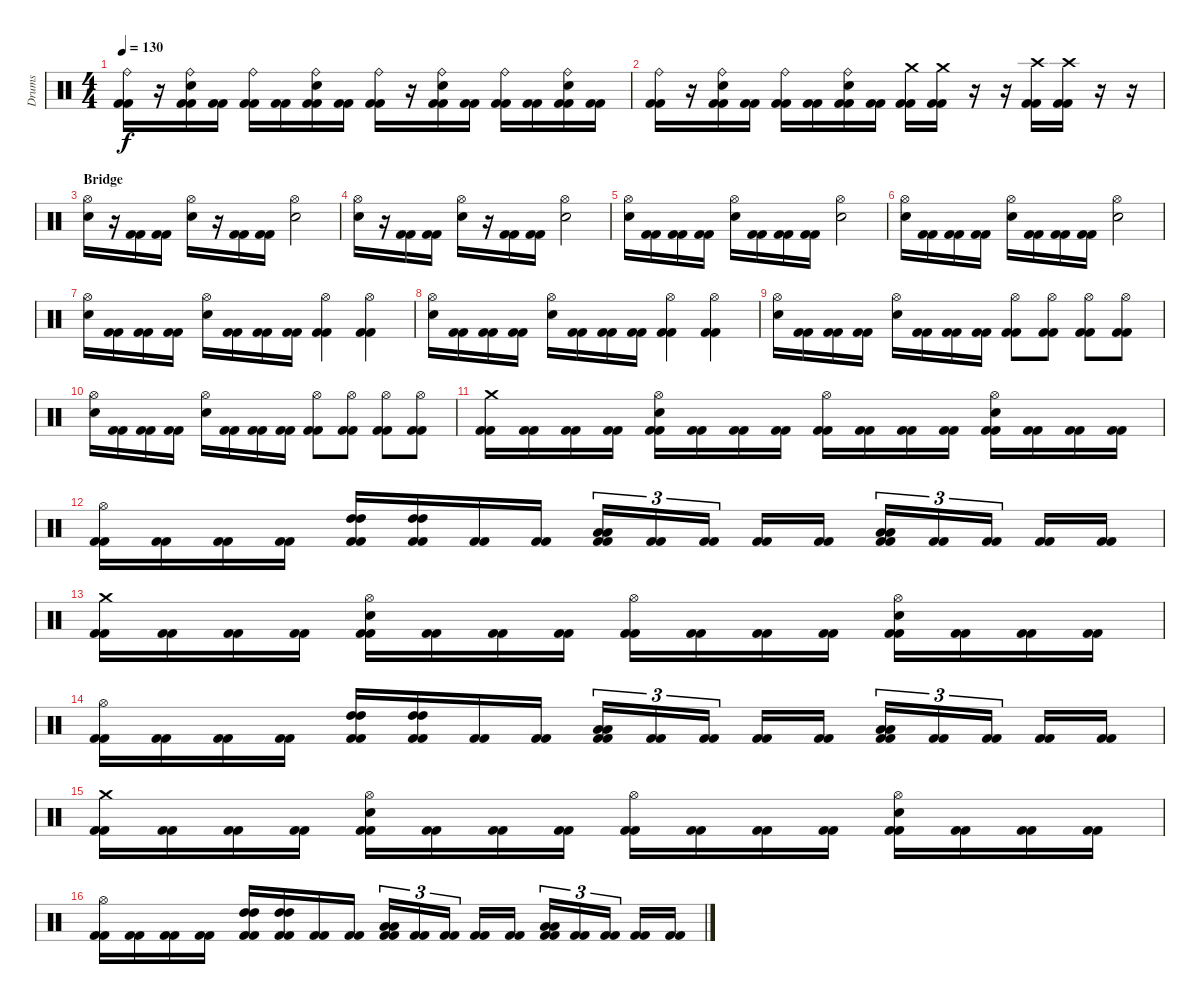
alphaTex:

\track ("Drums" "Drums") {instrument percussion}
\staff {score}
\articulation defaults
\ts (4 4)
\tempo 130
\clef neutral
\ks c
("Ride (bell)" "Kick (hit) 2" "Kick (hit) 2").16{dy f} r.16 ("Ride (bell)" "Electric Snare (hit)" "Kick (hit) 2" "Kick (hit) 2").16 ("Kick (hit) 2" "Kick (hit) 2").16 ("Ride (bell)" "Kick (hit) 2" "Kick (hit) 2").16 ("Kick (hit) 2" "Kick (hit) 2").16 ("Ride (bell)" "Electric Snare (hit)" "Kick (hit) 2" "Kick (hit) 2").16 ("Kick (hit) 2" "Kick (hit) 2").16 ("Ride (bell)" "Kick (hit) 2" "Kick (hit) 2").16 r.16 ("Ride (bell)" "Electric Snare (hit)" "Kick (hit) 2" "Kick (hit) 2").16 ("Kick (hit) 2" "Kick (hit) 2").16 ("Ride (bell)" "Kick (hit) 2" "Kick (hit) 2").16 ("Kick (hit) 2" "Kick (hit) 2").16 ("Ride (bell)" "Electric Snare (hit)" "Kick (hit) 2" "Kick (hit) 2").16 ("Kick (hit) 2" "Kick (hit) 2").16 |
("Ride (bell)" "Kick (hit) 2" "Kick (hit) 2").16 r.16 ("Ride (bell)" "Electric Snare (hit)" "Kick (hit) 2" "Kick (hit) 2").16 ("Kick (hit) 2" "Kick (hit) 2").16 ("Ride (bell)" "Kick (hit) 2" "Kick (hit) 2").16 ("Kick (hit) 2" "Kick (hit) 2").16 ("Ride (bell)" "Electric Snare (hit)" "Kick (hit) 2" "Kick (hit) 2").16 ("Kick (hit) 2" "Kick (hit) 2").16 ("Crash medium (hit)" "Kick (hit) 2" "Kick (hit) 2").16 ("Crash medium (hit)" "Kick (hit) 2" "Kick (hit) 2").16 r.16 r.16 ("Crash high (hit)" "Kick (hit) 2" "Kick (hit) 2").16 ("Crash high (hit)" "Kick (hit) 2" "Kick (hit) 2").16 r.16 r.16 |
\section ("" "Bridge")
("Hi-Hat (open)" "Electric Snare (hit)").16 r.16 ("Kick (hit) 2" "Kick (hit) 2").16 ("Kick (hit) 2" "Kick (hit) 2").16 ("Hi-Hat (open)" "Electric Snare (hit)").16 r.16 ("Kick (hit) 2" "Kick (hit) 2").16 ("Kick (hit) 2" "Kick (hit) 2").16 ("Hi-Hat (open)" "Electric Snare (hit)").2 |
("Hi-Hat (open)" "Electric Snare (hit)").16 r.16 ("Kick (hit) 2" "Kick (hit) 2").16 ("Kick (hit) 2" "Kick (hit) 2").16 ("Hi-Hat (open)" "Electric Snare (hit)").16 r.16 ("Kick (hit) 2" "Kick (hit) 2").16 ("Kick (hit) 2" "Kick (hit) 2").16 ("Hi-Hat (open)" "Electric Snare (hit)").2 |
("Hi-Hat (open)" "Electric Snare (hit)").16 ("Kick (hit) 2" "Kick (hit) 2").16 ("Kick (hit) 2" "Kick (hit) 2").16 ("Kick (hit) 2" "Kick (hit) 2").16 ("Hi-Hat (open)" "Electric Snare (hit)").16 ("Kick (hit) 2" "Kick (hit) 2").16 ("Kick (hit) 2" "Kick (hit) 2").16 ("Kick (hit) 2" "Kick (hit) 2").16 ("Hi-Hat (open)" "Electric Snare (hit)").2 |
("Hi-Hat (open)" "Electric Snare (hit)").16 ("Kick (hit) 2" "Kick (hit) 2").16 ("Kick (hit) 2" "Kick (hit) 2").16 ("Kick (hit) 2" "Kick (hit) 2").16 ("Hi-Hat (open)" "Electric Snare (hit)").16 ("Kick (hit) 2" "Kick (hit) 2").16 ("Kick (hit) 2" "Kick (hit) 2").16 ("Kick (hit) 2" "Kick (hit) 2").16 ("Hi-Hat (open)" "Electric Snare (hit)").2 |
("Hi-Hat (open)" "Electric Snare (hit)").16 ("Kick (hit) 2" "Kick (hit) 2").16 ("Kick (hit) 2" "Kick (hit) 2").16 ("Kick (hit) 2" "Kick (hit) 2").16 ("Hi-Hat (open)" "Electric Snare (hit)").16 ("Kick (hit) 2" "Kick (hit) 2").16 ("Kick (hit) 2" "Kick (hit) 2").16 ("Kick (hit) 2" "Kick (hit) 2").16 ("Hi-Hat (open)" "Kick (hit) 2" "Kick (hit) 2").4 ("Hi-Hat (open)" "Kick (hit) 2" "Kick (hit) 2").4 |
("Hi-Hat (open)" "Electric Snare (hit)").16 ("Kick (hit) 2" "Kick (hit) 2").16 ("Kick (hit) 2" "Kick (hit) 2").16 ("Kick (hit) 2" "Kick (hit) 2").16 ("Hi-Hat (open)" "Electric Snare (hit)").16 ("Kick (hit) 2" "Kick (hit) 2").16 ("Kick (hit) 2" "Kick (hit) 2").16 ("Kick (hit) 2" "Kick (hit) 2").16 ("Hi-Hat (open)" "Kick (hit) 2" "Kick (hit) 2").4 ("Hi-Hat (open)" "Kick (hit) 2" "Kick (hit) 2").4 |
("Hi-Hat (open)" "Electric Snare (hit)").16 ("Kick (hit) 2" "Kick (hit) 2").16 ("Kick (hit) 2" "Kick (hit) 2").16 ("Kick (hit) 2" "Kick (hit) 2").16 ("Hi-Hat (open)" "Electric Snare (hit)").16 ("Kick (hit) 2" "Kick (hit) 2").16 ("Kick (hit) 2" "Kick (hit) 2").16 ("Kick (hit) 2" "Kick (hit) 2").16 ("Hi-Hat (open)" "Kick (hit) 2" "Kick (hit) 2").8 ("Hi-Hat (open)" "Kick (hit) 2" "Kick (hit) 2").8 ("Hi-Hat (open)" "Kick (hit) 2" "Kick (hit) 2").8 ("Hi-Hat (open)" "Kick (hit) 2" "Kick (hit) 2").8 |
("Hi-Hat (open)" "Electric Snare (hit)").16 ("Kick (hit) 2" "Kick (hit) 2").16 ("Kick (hit) 2" "Kick (hit) 2").16 ("Kick (hit) 2" "Kick (hit) 2").16 ("Hi-Hat (open)" "Electric Snare (hit)").16 ("Kick (hit) 2" "Kick (hit) 2").16 ("Kick (hit) 2" "Kick (hit) 2").16 ("Kick (hit) 2" "Kick (hit) 2").16 ("Hi-Hat (open)" "Kick (hit) 2" "Kick (hit) 2").8 ("Hi-Hat (open)" "Kick (hit) 2" "Kick (hit) 2").8 ("Hi-Hat (open)" "Kick (hit) 2" "Kick (hit) 2").8 ("Hi-Hat (open)" "Kick (hit) 2" "Kick (hit) 2").8 |
("Crash medium (hit)" "Kick (hit) 2" "Kick (hit) 2").16 ("Kick (hit) 2" "Kick (hit) 2").16 ("Kick (hit) 2" "Kick (hit) 2").16 ("Kick (hit) 2" "Kick (hit) 2").16 ("Hi-Hat (open)" "Electric Snare (hit)" "Kick (hit) 2" "Kick (hit) 2").16 ("Kick (hit) 2" "Kick (hit) 2").16 ("Kick (hit) 2" "Kick (hit) 2").16 ("Kick (hit) 2" "Kick (hit) 2").16 ("Hi-Hat (open)" "Kick (hit) 2" "Kick (hit) 2").16 ("Kick (hit) 2" "Kick (hit) 2").16 ("Kick (hit) 2" "Kick (hit) 2").16 ("Kick (hit) 2" "Kick (hit) 2").16 ("Hi-Hat (open)" "Electric Snare (hit)" "Kick (hit) 2" "Kick (hit) 2").16 ("Kick (hit) 2" "Kick (hit) 2").16 ("Kick (hit) 2" "Kick (hit) 2").16 ("Kick (hit) 2" "Kick (hit) 2").16 |
("Hi-Hat (open)" "Kick (hit) 2" "Kick (hit) 2").16 ("Kick (hit) 2" "Kick (hit) 2").16 ("Kick (hit) 2" "Kick (hit) 2").16 ("Kick (hit) 2" "Kick (hit) 2").16 ("High Tom (hit)" "High Tom (hit)" "Kick (hit) 2" "Kick (hit) 2").16 ("High Tom (hit)" "High Tom (hit)" "Kick (hit) 2" "Kick (hit) 2").16 ("Kick (hit) 2" "Kick (hit) 2").16 ("Kick (hit) 2" "Kick (hit) 2").16 ("Low Tom (hit)" "Low Tom (hit)" "Kick (hit) 2" "Kick (hit) 2").16{tu (3 2)} ("Kick (hit) 2" "Kick (hit) 2").16{tu (3 2)} ("Kick (hit) 2" "Kick (hit) 2").16{tu (3 2)} ("Kick (hit) 2" "Kick (hit) 2").16 ("Kick (hit) 2" "Kick (hit) 2").16 ("Low Floor Tom (hit)" "Low Floor Tom (hit)" "Kick (hit) 2" "Kick (hit) 2").16{tu (3 2)} ("Kick (hit) 2" "Kick (hit) 2").16{tu (3 2)} ("Kick (hit) 2" "Kick (hit) 2").16{tu (3 2)} ("Kick (hit) 2" "Kick (hit) 2").16 ("Kick (hit) 2" "Kick (hit) 2").16 |
("Crash medium (hit)" "Kick (hit) 2" "Kick (hit) 2").16 ("Kick (hit) 2" "Kick (hit) 2").16 ("Kick (hit) 2" "Kick (hit) 2").16 ("Kick (hit) 2" "Kick (hit) 2").16 ("Hi-Hat (open)" "Electric Snare (hit)" "Kick (hit) 2" "Kick (hit) 2").16 ("Kick (hit) 2" "Kick (hit) 2").16 ("Kick (hit) 2" "Kick (hit) 2").16 ("Kick (hit) 2" "Kick (hit) 2").16 ("Hi-Hat (open)" "Kick (hit) 2" "Kick (hit) 2").16 ("Kick (hit) 2" "Kick (hit) 2").16 ("Kick (hit) 2" "Kick (hit) 2").16 ("Kick (hit) 2" "Kick (hit) 2").16 ("Hi-Hat (open)" "Electric Snare (hit)" "Kick (hit) 2" "Kick (hit) 2").16 ("Kick (hit) 2" "Kick (hit) 2").16 ("Kick (hit) 2" "Kick (hit) 2").16 ("Kick (hit) 2" "Kick (hit) 2").16 |
("Hi-Hat (open)" "Kick (hit) 2" "Kick (hit) 2").16 ("Kick (hit) 2" "Kick (hit) 2").16 ("Kick (hit) 2" "Kick (hit) 2").16 ("Kick (hit) 2" "Kick (hit) 2").16 ("High Tom (hit)" "High Tom (hit)" "Kick (hit) 2" "Kick (hit) 2").16 ("High Tom (hit)" "High Tom (hit)" "Kick (hit) 2" "Kick (hit) 2").16 ("Kick (hit) 2" "Kick (hit) 2").16 ("Kick (hit) 2" "Kick (hit) 2").16 ("Low Tom (hit)" "Low Tom (hit)" "Kick (hit) 2" "Kick (hit) 2").16{tu (3 2)} ("Kick (hit) 2" "Kick (hit) 2").16{tu (3 2)} ("Kick (hit) 2" "Kick (hit) 2").16{tu (3 2)} ("Kick (hit) 2" "Kick (hit) 2").16 ("Kick (hit) 2" "Kick (hit) 2").16 ("Low Floor Tom (hit)" "Low Floor Tom (hit)" "Kick (hit) 2" "Kick (hit) 2").16{tu (3 2)} ("Kick (hit) 2" "Kick (hit) 2").16{tu (3 2)} ("Kick (hit) 2" "Kick (hit) 2").16{tu (3 2)} ("Kick (hit) 2" "Kick (hit) 2").16 ("Kick (hit) 2" "Kick (hit) 2").16 |
("Crash medium (hit)" "Kick (hit) 2" "Kick (hit) 2").16 ("Kick (hit) 2" "Kick (hit) 2").16 ("Kick (hit) 2" "Kick (hit) 2").16 ("Kick (hit) 2" "Kick (hit) 2").16 ("Hi-Hat (open)" "Electric Snare (hit)" "Kick (hit) 2" "Kick (hit) 2").16 ("Kick (hit) 2" "Kick (hit) 2").16 ("Kick (hit) 2" "Kick (hit) 2").16 ("Kick (hit) 2" "Kick (hit) 2").16 ("Hi-Hat (open)" "Kick (hit) 2" "Kick (hit) 2").16 ("Kick (hit) 2" "Kick (hit) 2").16 ("Kick (hit) 2" "Kick (hit) 2").16 ("Kick (hit) 2" "Kick (hit) 2").16 ("Hi-Hat (open)" "Electric Snare (hit)" "Kick (hit) 2" "Kick (hit) 2").16 ("Kick (hit) 2" "Kick (hit) 2").16 ("Kick (hit) 2" "Kick (hit) 2").16 ("Kick (hit) 2" "Kick (hit) 2").16 |
("Hi-Hat (open)" "Kick (hit) 2" "Kick (hit) 2").16 ("Kick (hit) 2" "Kick (hit) 2").16 ("Kick (hit) 2" "Kick (hit) 2").16 ("Kick (hit) 2" "Kick (hit) 2").16 ("High Tom (hit)" "High Tom (hit)" "Kick (hit) 2" "Kick (hit) 2").16 ("High Tom (hit)" "High Tom (hit)" "Kick (hit) 2" "Kick (hit) 2").16 ("Kick (hit) 2" "Kick (hit) 2").16 ("Kick (hit) 2" "Kick (hit) 2").16 ("Low Tom (hit)" "Low Tom (hit)" "Kick (hit) 2" "Kick (hit) 2").16{tu (3 2)} ("Kick (hit) 2" "Kick (hit) 2").16{tu (3 2)} ("Kick (hit) 2" "Kick (hit) 2").16{tu (3 2)} ("Kick (hit) 2" "Kick (hit) 2").16 ("Kick (hit) 2" "Kick (hit) 2").16 ("Low Floor Tom (hit)" "Low Floor Tom (hit)" "Kick (hit) 2" "Kick (hit) 2").16{tu (3 2)} ("Kick (hit) 2" "Kick (hit) 2").16{tu (3 2)} ("Kick (hit) 2" "Kick (hit) 2").16{tu (3 2)} ("Kick (hit) 2" "Kick (hit) 2").16 ("Kick (hit) 2" "Kick (hit) 2").16
